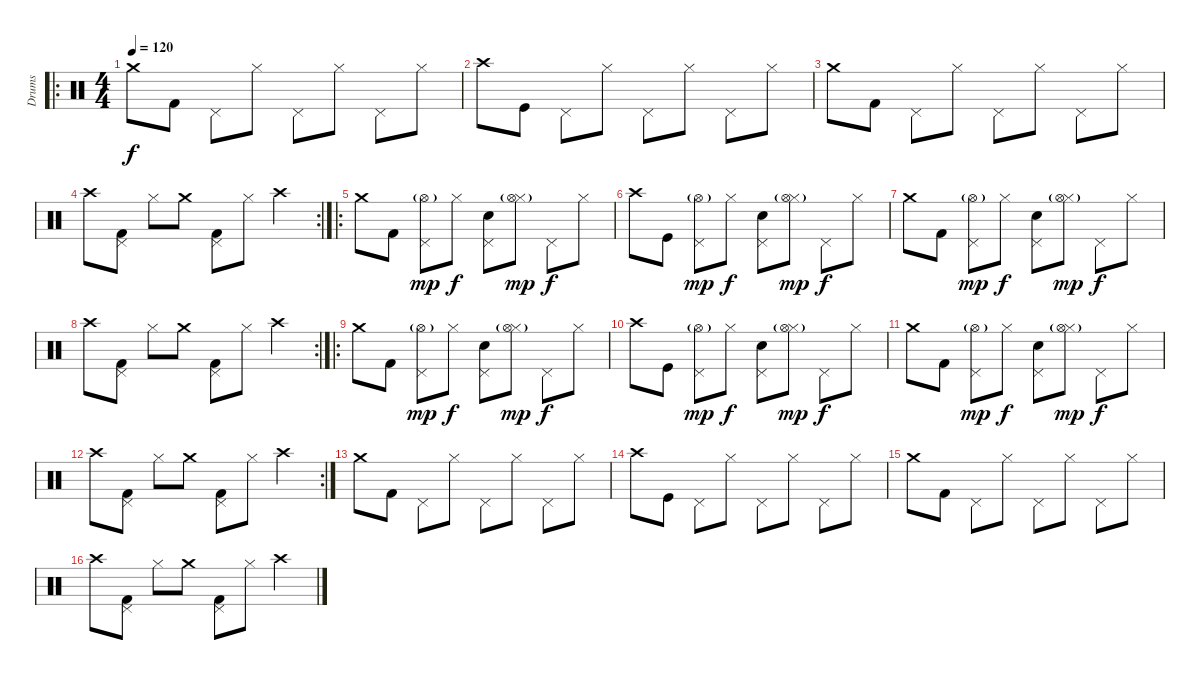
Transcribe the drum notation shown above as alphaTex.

\track ("Drums" "Drums") {instrument percussion}
\staff {score}
\articulation defaults
\ro
\ts (4 4)
\tempo 120
\clef neutral
\ks c "Crash medium (hit)".8{dy f} "Kick (hit) 2".8 "Pedal Hi-Hat (hit)".8 "Hi-Hat (closed)".8 "Pedal Hi-Hat (hit)".8 "Hi-Hat (closed)".8 "Pedal Hi-Hat (hit)".8 "Hi-Hat (closed)".8
|
"Crash high (hit)".8 "Kick (hit)".8 "Pedal Hi-Hat (hit)".8 "Hi-Hat (closed)".8 "Pedal Hi-Hat (hit)".8 "Hi-Hat (closed)".8 "Pedal Hi-Hat (hit)".8 "Hi-Hat (closed)".8 |
"Crash medium (hit)".8 "Kick (hit) 2".8 "Pedal Hi-Hat (hit)".8 "Hi-Hat (closed)".8 "Pedal Hi-Hat (hit)".8 "Hi-Hat (closed)".8 "Pedal Hi-Hat (hit)".8 "Hi-Hat (closed)".8 |
\rc 2 "Crash high (hit)".8
("Kick (hit) 2" "Pedal Hi-Hat (hit)").8 "Hi-Hat (closed)".8 "Crash medium (hit)".8 ("Kick (hit) 2" "Pedal Hi-Hat (hit)").8 "Hi-Hat (closed)".8 "Crash high (hit)".4 |
\ro "Crash medium (hit)".8 "Kick (hit) 2".8
("Pedal Hi-Hat (hit)" "Hi-Hat (open)"{g}).8{dy mp} "Hi-Hat (closed)".8{dy f} ("Pedal Hi-Hat (hit)" "Electric Snare (hit)").8 ("Hi-Hat (closed)" "Hi-Hat (open)"{g}).8{dy mp} "Pedal Hi-Hat (hit)".8{dy f} "Hi-Hat (closed)".8 |
"Crash high (hit)".8 "Kick (hit)".8 ("Pedal Hi-Hat (hit)" "Hi-Hat (open)"{g}).8{dy mp} "Hi-Hat (closed)".8{dy f} ("Pedal Hi-Hat (hit)" "Electric Snare (hit)").8 ("Hi-Hat (closed)" "Hi-Hat (open)"{g}).8{dy mp} "Pedal Hi-Hat (hit)".8{dy f} "Hi-Hat (closed)".8 |
"Crash medium (hit)".8 "Kick (hit) 2".8 ("Pedal Hi-Hat (hit)" "Hi-Hat (open)"{g}).8{dy mp} "Hi-Hat (closed)".8{dy f} ("Pedal Hi-Hat (hit)" "Electric Snare (hit)").8 ("Hi-Hat (closed)" "Hi-Hat (open)"{g}).8{dy mp} "Pedal Hi-Hat (hit)".8{dy f} "Hi-Hat (closed)".8 |
\rc 2 "Crash high (hit)".8
("Kick (hit) 2" "Pedal Hi-Hat (hit)").8 "Hi-Hat (closed)".8 "Crash medium (hit)".8 ("Kick (hit) 2" "Pedal Hi-Hat (hit)").8 "Hi-Hat (closed)".8 "Crash high (hit)".4 |
\ro "Crash medium (hit)".8 "Kick (hit) 2".8
("Pedal Hi-Hat (hit)" "Hi-Hat (open)"{g}).8{dy mp} "Hi-Hat (closed)".8{dy f} ("Pedal Hi-Hat (hit)" "Electric Snare (hit)").8 ("Hi-Hat (closed)" "Hi-Hat (open)"{g}).8{dy mp} "Pedal Hi-Hat (hit)".8{dy f} "Hi-Hat (closed)".8 |
"Crash high (hit)".8 "Kick (hit)".8 ("Pedal Hi-Hat (hit)" "Hi-Hat (open)"{g}).8{dy mp} "Hi-Hat (closed)".8{dy f} ("Pedal Hi-Hat (hit)" "Electric Snare (hit)").8 ("Hi-Hat (closed)" "Hi-Hat (open)"{g}).8{dy mp} "Pedal Hi-Hat (hit)".8{dy f} "Hi-Hat (closed)".8 |
"Crash medium (hit)".8 "Kick (hit) 2".8 ("Pedal Hi-Hat (hit)" "Hi-Hat (open)"{g}).8{dy mp} "Hi-Hat (closed)".8{dy f} ("Pedal Hi-Hat (hit)" "Electric Snare (hit)").8 ("Hi-Hat (closed)" "Hi-Hat (open)"{g}).8{dy mp} "Pedal Hi-Hat (hit)".8{dy f} "Hi-Hat (closed)".8 |
\rc 2 "Crash high (hit)".8
("Kick (hit) 2" "Pedal Hi-Hat (hit)").8 "Hi-Hat (closed)".8 "Crash medium (hit)".8 ("Kick (hit) 2" "Pedal Hi-Hat (hit)").8 "Hi-Hat (closed)".8 "Crash high (hit)".4 |
"Crash medium (hit)".8 "Kick (hit) 2".8 "Pedal Hi-Hat (hit)".8 "Hi-Hat (closed)".8 "Pedal Hi-Hat (hit)".8 "Hi-Hat (closed)".8 "Pedal Hi-Hat (hit)".8 "Hi-Hat (closed)".8 |
"Crash high (hit)".8 "Kick (hit)".8 "Pedal Hi-Hat (hit)".8 "Hi-Hat (closed)".8 "Pedal Hi-Hat (hit)".8 "Hi-Hat (closed)".8 "Pedal Hi-Hat (hit)".8 "Hi-Hat (closed)".8 |
"Crash medium (hit)".8 "Kick (hit) 2".8 "Pedal Hi-Hat (hit)".8 "Hi-Hat (closed)".8 "Pedal Hi-Hat (hit)".8 "Hi-Hat (closed)".8 "Pedal Hi-Hat (hit)".8 "Hi-Hat (closed)".8 |
"Crash high (hit)".8 ("Kick (hit) 2" "Pedal Hi-Hat (hit)").8 "Hi-Hat (closed)".8 "Crash medium (hit)".8 ("Kick (hit) 2" "Pedal Hi-Hat (hit)").8 "Hi-Hat (closed)".8 "Crash high (hit)".4
